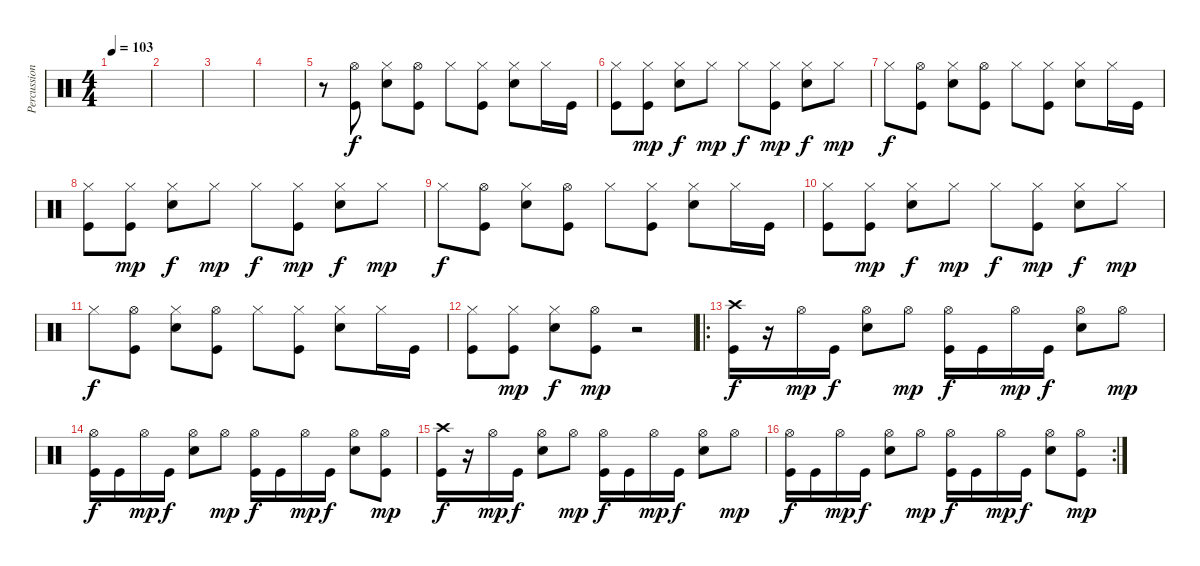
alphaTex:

\track ("Percussion" "Percussion") {instrument percussion}
\staff {score}
\articulation defaults
\ts (4 4)
\tempo 103
\clef neutral
\ks c
|
|
|
|
r.8 ("Hi-Hat (open)" "Kick (hit)").8 ("Hi-Hat (closed)" "Electric Snare (hit)").8 ("Hi-Hat (open)" "Kick (hit)").8 "Hi-Hat (closed)".8 ("Hi-Hat (closed)" "Kick (hit)").8 ("Hi-Hat (closed)" "Electric Snare (hit)").8 "Hi-Hat (closed)".16 "Kick (hit)".16 |
("Hi-Hat (closed)" "Kick (hit)").8 ("Hi-Hat (closed)" "Kick (hit)").8{dy mp} ("Hi-Hat (closed)" "Electric Snare (hit)").8{dy f} "Hi-Hat (closed)".8{dy mp} "Hi-Hat (closed)".8{dy f} ("Hi-Hat (closed)" "Kick (hit)").8{dy mp} ("Hi-Hat (closed)" "Electric Snare (hit)").8{dy f} "Hi-Hat (closed)".8{dy mp} |
"Hi-Hat (closed)".8{dy f} ("Hi-Hat (open)" "Kick (hit)").8 ("Hi-Hat (closed)" "Electric Snare (hit)").8 ("Hi-Hat (open)" "Kick (hit)").8 "Hi-Hat (closed)".8 ("Hi-Hat (closed)" "Kick (hit)").8 ("Hi-Hat (closed)" "Electric Snare (hit)").8 "Hi-Hat (closed)".16 "Kick (hit)".16 |
("Hi-Hat (closed)" "Kick (hit)").8 ("Hi-Hat (closed)" "Kick (hit)").8{dy mp} ("Hi-Hat (closed)" "Electric Snare (hit)").8{dy f} "Hi-Hat (closed)".8{dy mp} "Hi-Hat (closed)".8{dy f} ("Hi-Hat (closed)" "Kick (hit)").8{dy mp} ("Hi-Hat (closed)" "Electric Snare (hit)").8{dy f} "Hi-Hat (closed)".8{dy mp} |
"Hi-Hat (closed)".8{dy f} ("Hi-Hat (open)" "Kick (hit)").8 ("Hi-Hat (closed)" "Electric Snare (hit)").8 ("Hi-Hat (open)" "Kick (hit)").8 "Hi-Hat (closed)".8 ("Hi-Hat (closed)" "Kick (hit)").8 ("Hi-Hat (closed)" "Electric Snare (hit)").8 "Hi-Hat (closed)".16 "Kick (hit)".16 |
("Hi-Hat (closed)" "Kick (hit)").8 ("Hi-Hat (closed)" "Kick (hit)").8{dy mp} ("Hi-Hat (closed)" "Electric Snare (hit)").8{dy f} "Hi-Hat (closed)".8{dy mp} "Hi-Hat (closed)".8{dy f} ("Hi-Hat (closed)" "Kick (hit)").8{dy mp} ("Hi-Hat (closed)" "Electric Snare (hit)").8{dy f} "Hi-Hat (closed)".8{dy mp} |
"Hi-Hat (closed)".8{dy f} ("Hi-Hat (open)" "Kick (hit)").8 ("Hi-Hat (closed)" "Electric Snare (hit)").8 ("Hi-Hat (open)" "Kick (hit)").8 "Hi-Hat (closed)".8 ("Hi-Hat (closed)" "Kick (hit)").8 ("Hi-Hat (closed)" "Electric Snare (hit)").8 "Hi-Hat (closed)".16 "Kick (hit)".16 |
("Hi-Hat (closed)" "Kick (hit)").8 ("Hi-Hat (closed)" "Kick (hit)").8{dy mp} ("Hi-Hat (closed)" "Electric Snare (hit)").8{dy f} ("Hi-Hat (open)" "Kick (hit)").8{dy mp} r.2 |
\ro
("Crash high (hit)" "Kick (hit)").16{dy f} r.16 "Hi-Hat (open)".16{dy mp} "Kick (hit)".16{dy f} ("Hi-Hat (open)" "Electric Snare (hit)").8 "Hi-Hat (open)".8{dy mp} ("Hi-Hat (open)" "Kick (hit)").16{dy f} "Kick (hit)".16 "Hi-Hat (open)".16{dy mp} "Kick (hit)".16{dy f} ("Hi-Hat (open)" "Electric Snare (hit)").8 "Hi-Hat (open)".8{dy mp} |
("Hi-Hat (open)" "Kick (hit)").16{dy f} "Kick (hit)".16 "Hi-Hat (open)".16{dy mp} "Kick (hit)".16{dy f} ("Hi-Hat (open)" "Electric Snare (hit)").8 "Hi-Hat (open)".8{dy mp} ("Hi-Hat (open)" "Kick (hit)").16{dy f} "Kick (hit)".16 "Hi-Hat (open)".16{dy mp} "Kick (hit)".16{dy f} ("Hi-Hat (open)" "Electric Snare (hit)").8 ("Hi-Hat (open)" "Kick (hit)").8{dy mp} |
("Crash high (hit)" "Kick (hit)").16{dy f} r.16 "Hi-Hat (open)".16{dy mp} "Kick (hit)".16{dy f} ("Hi-Hat (open)" "Electric Snare (hit)").8 "Hi-Hat (open)".8{dy mp} ("Hi-Hat (open)" "Kick (hit)").16{dy f} "Kick (hit)".16 "Hi-Hat (open)".16{dy mp} "Kick (hit)".16{dy f} ("Hi-Hat (open)" "Electric Snare (hit)").8 "Hi-Hat (open)".8{dy mp} |
\rc 2
("Hi-Hat (open)" "Kick (hit)").16{dy f} "Kick (hit)".16 "Hi-Hat (open)".16{dy mp} "Kick (hit)".16{dy f} ("Hi-Hat (open)" "Electric Snare (hit)").8 "Hi-Hat (open)".8{dy mp} ("Hi-Hat (open)" "Kick (hit)").16{dy f} "Kick (hit)".16 "Hi-Hat (open)".16{dy mp} "Kick (hit)".16{dy f} ("Hi-Hat (open)" "Electric Snare (hit)").8 ("Hi-Hat (open)" "Kick (hit)").8{dy mp}
